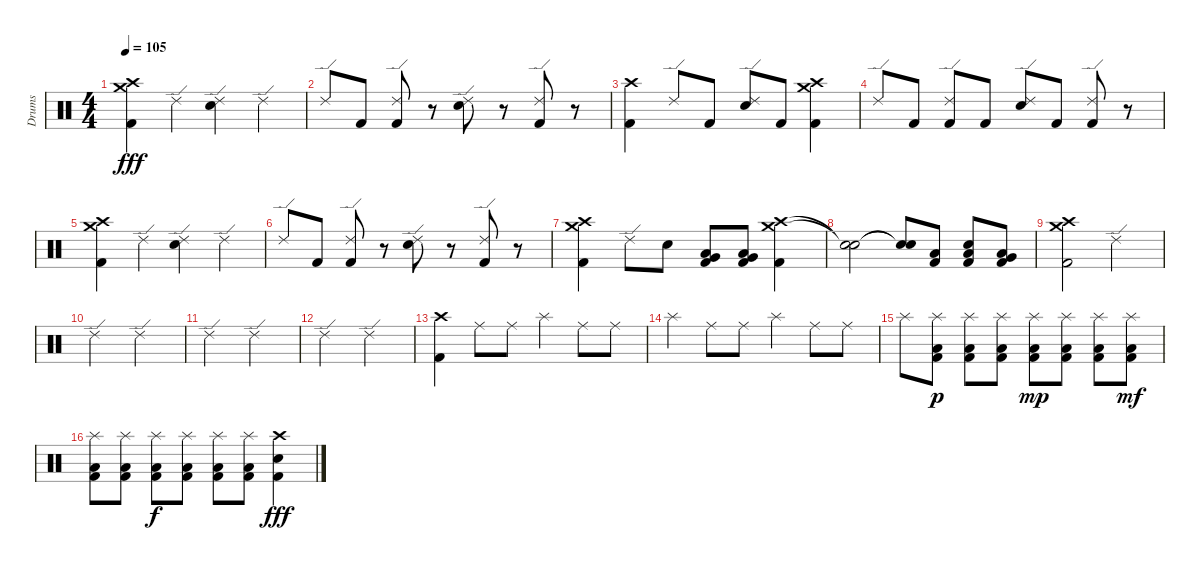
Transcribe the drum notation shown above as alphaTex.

\track ("Drums" "Drums") {instrument percussion}
\staff {score}
\articulation defaults
\ts (4 4)
\tempo 105
\clef neutral
\ks c
("Crash high (hit)" "Crash medium (hit)" "Kick (hit) 2").4{dy fff} "Ride (edge) 2".4 ("Ride (edge) 2" "Electric Snare (hit)").4 "Ride (edge) 2".4 |
"Ride (edge) 2".8 "Kick (hit) 2".8 ("Ride (edge) 2" "Kick (hit) 2").8 r.8 ("Ride (edge) 2" "Electric Snare (hit)").8 r.8 ("Ride (edge) 2" "Kick (hit) 2").8 r.8 |
("Crash high (hit)" "Kick (hit) 2").4 "Ride (edge) 2".8 "Kick (hit) 2".8 ("Ride (edge) 2" "Electric Snare (hit)").8 "Kick (hit) 2".8 ("Crash high (hit)" "Crash medium (hit)" "Kick (hit) 2").4 |
"Ride (edge) 2".8 "Kick (hit) 2".8 ("Ride (edge) 2" "Kick (hit) 2").8 "Kick (hit) 2".8 ("Ride (edge) 2" "Electric Snare (hit)").8 "Kick (hit) 2".8 ("Ride (edge) 2" "Kick (hit) 2").8 r.8 |
("Crash high (hit)" "Crash medium (hit)" "Kick (hit) 2").4 "Ride (edge) 2".4 ("Ride (edge) 2" "Electric Snare (hit)").4 "Ride (edge) 2".4 |
"Ride (edge) 2".8 "Kick (hit) 2".8 ("Ride (edge) 2" "Kick (hit) 2").8 r.8 ("Ride (edge) 2" "Electric Snare (hit)").8 r.8 ("Ride (edge) 2" "Kick (hit) 2").8 r.8 |
("Crash high (hit)" "Crash medium (hit)" "Kick (hit) 2").4 "Ride (edge) 2".8 "Electric Snare (hit)".8 ("Very Low Tom (hit)" "Low Tom (hit)" "Kick (hit) 2").8 ("Very Low Tom (hit)" "Low Tom (hit)" "Kick (hit) 2").8 ("Crash high (hit)" "Crash medium (hit)" "Kick (hit) 2").4 |
("Snare (hit)"{t} "Snare (hit)"{t}).2 ("Snare (hit)"{t} "Snare (hit)"{t}).8 ("Low Floor Tom (hit)" "Kick (hit) 2").8 ("Electric Snare (hit)" "Low Floor Tom (hit)" "Kick (hit) 2").8 ("Very Low Tom (hit)" "Low Floor Tom (hit)" "Kick (hit) 2").8 |
("Crash high (hit)" "Crash medium (hit)" "Kick (hit) 2").2 "Ride (edge) 2".2 |
"Ride (edge) 2".2 "Ride (edge) 2".2 |
"Ride (edge) 2".2 "Ride (edge) 2".2 |
"Ride (edge) 2".2 "Ride (edge) 2".2 |
("Crash high (hit)" "Kick (hit) 2").4 "Ride (middle)".8 "Ride (middle)".8 "Splash (hit)".4 "Ride (middle)".8 "Ride (middle)".8 |
"Splash (hit)".4 "Ride (middle)".8 "Ride (middle)".8 "Splash (hit)".4 "Ride (middle)".8 "Ride (middle)".8 |
"Splash (hit)".8 ("Splash (hit)" "Low Floor Tom (hit)" "Kick (hit) 2").8{dy p} ("Splash (hit)" "Low Floor Tom (hit)" "Kick (hit) 2").8 ("Splash (hit)" "Low Floor Tom (hit)" "Kick (hit) 2").8 ("Splash (hit)" "Low Floor Tom (hit)" "Kick (hit) 2").8{dy mp} ("Splash (hit)" "Low Floor Tom (hit)" "Kick (hit) 2").8 ("Splash (hit)" "Low Floor Tom (hit)" "Kick (hit) 2").8 ("Splash (hit)" "Low Floor Tom (hit)" "Kick (hit) 2").8{dy mf} |
("Splash (hit)" "Low Floor Tom (hit)" "Kick (hit) 2").8 ("Splash (hit)" "Low Floor Tom (hit)" "Kick (hit) 2").8 ("Splash (hit)" "Low Floor Tom (hit)" "Kick (hit) 2").8{dy f} ("Splash (hit)" "Low Floor Tom (hit)" "Kick (hit) 2").8 ("Splash (hit)" "Low Floor Tom (hit)" "Kick (hit) 2").8 ("Splash (hit)" "Low Floor Tom (hit)" "Kick (hit) 2").8 ("Crash high (hit)" "Electric Snare (hit)" "Kick (hit) 2").4{dy fff}
